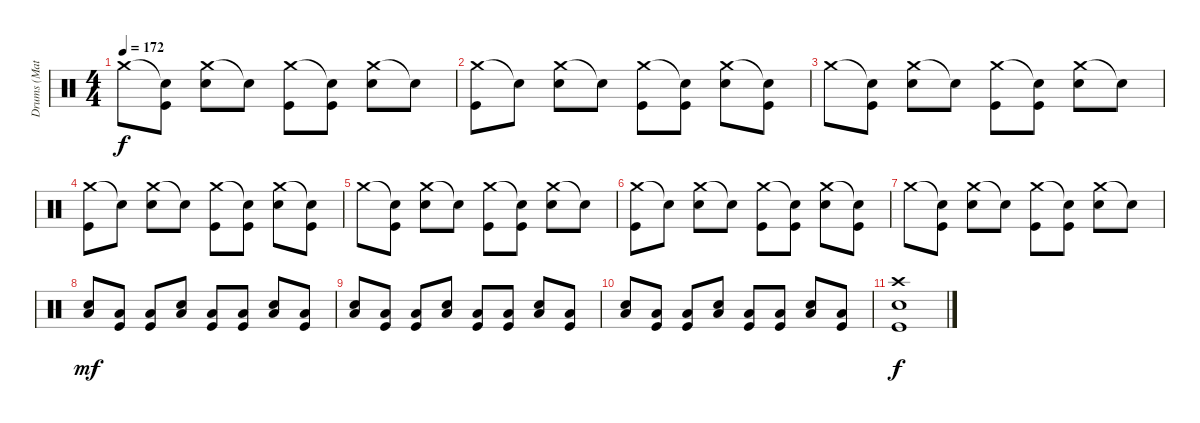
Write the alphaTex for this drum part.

\track ("Drums (Matt)" "Drums (Mat") {instrument percussion}
\staff {score}
\articulation defaults
\ts (4 4)
\tempo 172
\clef neutral
\ks c "Crash medium (hit)".8{dy f}
("Snare (hit)"{t} "Kick (hit)").8 ("Crash medium (hit)" "Electric Snare (hit)").8 "Snare (hit)"{t}.8 ("Crash medium (hit)" "Kick (hit)").8 ("Snare (hit)"{t} "Kick (hit)").8 ("Crash medium (hit)" "Electric Snare (hit)").8 "Snare (hit)"{t}.8 |
("Crash medium (hit)" "Kick (hit)").8 "Snare (hit)"{t}.8 ("Crash medium (hit)" "Electric Snare (hit)").8 "Snare (hit)"{t}.8 ("Crash medium (hit)" "Kick (hit)").8 ("Snare (hit)"{t} "Kick (hit)").8 ("Crash medium (hit)" "Electric Snare (hit)").8 ("Snare (hit)"{t} "Kick (hit)").8 |
"Crash medium (hit)".8 ("Snare (hit)"{t} "Kick (hit)").8 ("Crash medium (hit)" "Electric Snare (hit)").8 "Snare (hit)"{t}.8 ("Crash medium (hit)" "Kick (hit)").8 ("Snare (hit)"{t} "Kick (hit)").8 ("Crash medium (hit)" "Electric Snare (hit)").8 "Snare (hit)"{t}.8 |
("Crash medium (hit)" "Kick (hit)").8 "Snare (hit)"{t}.8 ("Crash medium (hit)" "Electric Snare (hit)").8 "Snare (hit)"{t}.8 ("Crash medium (hit)" "Kick (hit)").8 ("Snare (hit)"{t} "Kick (hit)").8 ("Crash medium (hit)" "Electric Snare (hit)").8 ("Snare (hit)"{t} "Kick (hit)").8 |
"Crash medium (hit)".8 ("Snare (hit)"{t} "Kick (hit)").8 ("Crash medium (hit)" "Electric Snare (hit)").8 "Snare (hit)"{t}.8 ("Crash medium (hit)" "Kick (hit)").8 ("Snare (hit)"{t} "Kick (hit)").8 ("Crash medium (hit)" "Electric Snare (hit)").8 "Snare (hit)"{t}.8 |
("Crash medium (hit)" "Kick (hit)").8 "Snare (hit)"{t}.8 ("Crash medium (hit)" "Electric Snare (hit)").8 "Snare (hit)"{t}.8 ("Crash medium (hit)" "Kick (hit)").8 ("Snare (hit)"{t} "Kick (hit)").8 ("Crash medium (hit)" "Electric Snare (hit)").8 ("Snare (hit)"{t} "Kick (hit)").8 |
"Crash medium (hit)".8 ("Snare (hit)"{t} "Kick (hit)").8 ("Crash medium (hit)" "Electric Snare (hit)").8 "Snare (hit)"{t}.8 ("Crash medium (hit)" "Kick (hit)").8 ("Snare (hit)"{t} "Kick (hit)").8 ("Crash medium (hit)" "Electric Snare (hit)").8 "Snare (hit)"{t}.8 |
("Electric Snare (hit)" "Low Tom (hit)").8{dy mf} ("Low Tom (hit)" "Kick (hit)").8 ("Low Tom (hit)" "Kick (hit)").8 ("Electric Snare (hit)" "Low Tom (hit)").8 ("Low Tom (hit)" "Kick (hit)").8 ("Low Tom (hit)" "Kick (hit)").8 ("Electric Snare (hit)" "Low Tom (hit)").8 ("Low Tom (hit)" "Kick (hit)").8 |
("Electric Snare (hit)" "Low Tom (hit)").8 ("Low Tom (hit)" "Kick (hit)").8 ("Low Tom (hit)" "Kick (hit)").8 ("Electric Snare (hit)" "Low Tom (hit)").8 ("Low Tom (hit)" "Kick (hit)").8 ("Low Tom (hit)" "Kick (hit)").8 ("Electric Snare (hit)" "Low Tom (hit)").8 ("Low Tom (hit)" "Kick (hit)").8 |
("Electric Snare (hit)" "Low Tom (hit)").8 ("Low Tom (hit)" "Kick (hit)").8 ("Low Tom (hit)" "Kick (hit)").8 ("Electric Snare (hit)" "Low Tom (hit)").8 ("Low Tom (hit)" "Kick (hit)").8 ("Low Tom (hit)" "Kick (hit)").8 ("Electric Snare (hit)" "Low Tom (hit)").8 ("Low Tom (hit)" "Kick (hit)").8 |
("Crash high (hit)" "Electric Snare (hit)" "Kick (hit)").1{dy f}
